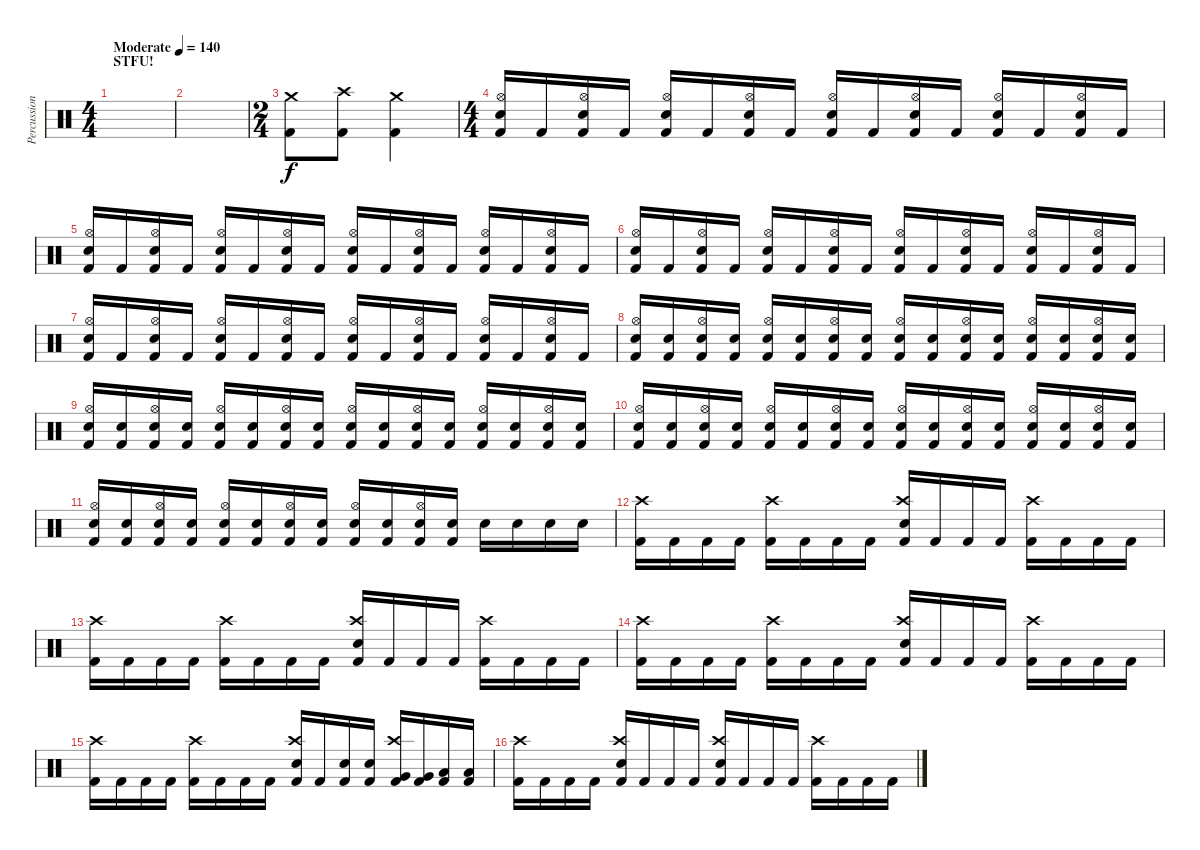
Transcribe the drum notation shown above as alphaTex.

\track ("Percussion" "Percussion") {instrument percussion}
\staff {score}
\articulation defaults
\ts (4 4)
\section ("" "STFU!")
\tempo (140 "Moderate")
\clef neutral
\ks c
|
|
\ts (2 4)
("Crash medium (hit)" "Kick (hit) 2").8 ("Crash high (hit)" "Kick (hit) 2").8 ("Crash medium (hit)" "Kick (hit) 2").4 |
\ts (4 4)
("Hi-Hat (open)" "Electric Snare (hit)" "Kick (hit) 2").16 "Kick (hit) 2".16 ("Hi-Hat (open)" "Electric Snare (hit)" "Kick (hit) 2").16 "Kick (hit) 2".16 ("Hi-Hat (open)" "Electric Snare (hit)" "Kick (hit) 2").16 "Kick (hit) 2".16 ("Hi-Hat (open)" "Electric Snare (hit)" "Kick (hit) 2").16 "Kick (hit) 2".16 ("Hi-Hat (open)" "Electric Snare (hit)" "Kick (hit) 2").16 "Kick (hit) 2".16 ("Hi-Hat (open)" "Electric Snare (hit)" "Kick (hit) 2").16 "Kick (hit) 2".16 ("Hi-Hat (open)" "Electric Snare (hit)" "Kick (hit) 2").16 "Kick (hit) 2".16 ("Hi-Hat (open)" "Electric Snare (hit)" "Kick (hit) 2").16 "Kick (hit) 2".16 |
("Hi-Hat (open)" "Electric Snare (hit)" "Kick (hit) 2").16 "Kick (hit) 2".16 ("Hi-Hat (open)" "Electric Snare (hit)" "Kick (hit) 2").16 "Kick (hit) 2".16 ("Hi-Hat (open)" "Electric Snare (hit)" "Kick (hit) 2").16 "Kick (hit) 2".16 ("Hi-Hat (open)" "Electric Snare (hit)" "Kick (hit) 2").16 "Kick (hit) 2".16 ("Hi-Hat (open)" "Electric Snare (hit)" "Kick (hit) 2").16 "Kick (hit) 2".16 ("Hi-Hat (open)" "Electric Snare (hit)" "Kick (hit) 2").16 "Kick (hit) 2".16 ("Hi-Hat (open)" "Electric Snare (hit)" "Kick (hit) 2").16 "Kick (hit) 2".16 ("Hi-Hat (open)" "Electric Snare (hit)" "Kick (hit) 2").16 "Kick (hit) 2".16 |
("Hi-Hat (open)" "Electric Snare (hit)" "Kick (hit) 2").16 "Kick (hit) 2".16 ("Hi-Hat (open)" "Electric Snare (hit)" "Kick (hit) 2").16 "Kick (hit) 2".16 ("Hi-Hat (open)" "Electric Snare (hit)" "Kick (hit) 2").16 "Kick (hit) 2".16 ("Hi-Hat (open)" "Electric Snare (hit)" "Kick (hit) 2").16 "Kick (hit) 2".16 ("Hi-Hat (open)" "Electric Snare (hit)" "Kick (hit) 2").16 "Kick (hit) 2".16 ("Hi-Hat (open)" "Electric Snare (hit)" "Kick (hit) 2").16 "Kick (hit) 2".16 ("Hi-Hat (open)" "Electric Snare (hit)" "Kick (hit) 2").16 "Kick (hit) 2".16 ("Hi-Hat (open)" "Electric Snare (hit)" "Kick (hit) 2").16 "Kick (hit) 2".16 |
("Hi-Hat (open)" "Electric Snare (hit)" "Kick (hit) 2").16 "Kick (hit) 2".16 ("Hi-Hat (open)" "Electric Snare (hit)" "Kick (hit) 2").16 "Kick (hit) 2".16 ("Hi-Hat (open)" "Electric Snare (hit)" "Kick (hit) 2").16 "Kick (hit) 2".16 ("Hi-Hat (open)" "Electric Snare (hit)" "Kick (hit) 2").16 "Kick (hit) 2".16 ("Hi-Hat (open)" "Electric Snare (hit)" "Kick (hit) 2").16 "Kick (hit) 2".16 ("Hi-Hat (open)" "Electric Snare (hit)" "Kick (hit) 2").16 "Kick (hit) 2".16 ("Hi-Hat (open)" "Electric Snare (hit)" "Kick (hit) 2").16 "Kick (hit) 2".16 ("Hi-Hat (open)" "Electric Snare (hit)" "Kick (hit) 2").16 "Kick (hit) 2".16 |
("Hi-Hat (open)" "Electric Snare (hit)" "Kick (hit) 2").16 ("Electric Snare (hit)" "Kick (hit) 2").16 ("Hi-Hat (open)" "Electric Snare (hit)" "Kick (hit) 2").16 ("Electric Snare (hit)" "Kick (hit) 2").16 ("Hi-Hat (open)" "Electric Snare (hit)" "Kick (hit) 2").16 ("Electric Snare (hit)" "Kick (hit) 2").16 ("Hi-Hat (open)" "Electric Snare (hit)" "Kick (hit) 2").16 ("Electric Snare (hit)" "Kick (hit) 2").16 ("Hi-Hat (open)" "Electric Snare (hit)" "Kick (hit) 2").16 ("Electric Snare (hit)" "Kick (hit) 2").16 ("Hi-Hat (open)" "Electric Snare (hit)" "Kick (hit) 2").16 ("Electric Snare (hit)" "Kick (hit) 2").16 ("Hi-Hat (open)" "Electric Snare (hit)" "Kick (hit) 2").16 ("Electric Snare (hit)" "Kick (hit) 2").16 ("Hi-Hat (open)" "Electric Snare (hit)" "Kick (hit) 2").16 ("Electric Snare (hit)" "Kick (hit) 2").16 |
("Hi-Hat (open)" "Electric Snare (hit)" "Kick (hit) 2").16 ("Electric Snare (hit)" "Kick (hit) 2").16 ("Hi-Hat (open)" "Electric Snare (hit)" "Kick (hit) 2").16 ("Electric Snare (hit)" "Kick (hit) 2").16 ("Hi-Hat (open)" "Electric Snare (hit)" "Kick (hit) 2").16 ("Electric Snare (hit)" "Kick (hit) 2").16 ("Hi-Hat (open)" "Electric Snare (hit)" "Kick (hit) 2").16 ("Electric Snare (hit)" "Kick (hit) 2").16 ("Hi-Hat (open)" "Electric Snare (hit)" "Kick (hit) 2").16 ("Electric Snare (hit)" "Kick (hit) 2").16 ("Hi-Hat (open)" "Electric Snare (hit)" "Kick (hit) 2").16 ("Electric Snare (hit)" "Kick (hit) 2").16 ("Hi-Hat (open)" "Electric Snare (hit)" "Kick (hit) 2").16 ("Electric Snare (hit)" "Kick (hit) 2").16 ("Hi-Hat (open)" "Electric Snare (hit)" "Kick (hit) 2").16 ("Electric Snare (hit)" "Kick (hit) 2").16 |
("Hi-Hat (open)" "Electric Snare (hit)" "Kick (hit) 2").16 ("Electric Snare (hit)" "Kick (hit) 2").16 ("Hi-Hat (open)" "Electric Snare (hit)" "Kick (hit) 2").16 ("Electric Snare (hit)" "Kick (hit) 2").16 ("Hi-Hat (open)" "Electric Snare (hit)" "Kick (hit) 2").16 ("Electric Snare (hit)" "Kick (hit) 2").16 ("Hi-Hat (open)" "Electric Snare (hit)" "Kick (hit) 2").16 ("Electric Snare (hit)" "Kick (hit) 2").16 ("Hi-Hat (open)" "Electric Snare (hit)" "Kick (hit) 2").16 ("Electric Snare (hit)" "Kick (hit) 2").16 ("Hi-Hat (open)" "Electric Snare (hit)" "Kick (hit) 2").16 ("Electric Snare (hit)" "Kick (hit) 2").16 ("Hi-Hat (open)" "Electric Snare (hit)" "Kick (hit) 2").16 ("Electric Snare (hit)" "Kick (hit) 2").16 ("Hi-Hat (open)" "Electric Snare (hit)" "Kick (hit) 2").16 ("Electric Snare (hit)" "Kick (hit) 2").16 |
("Hi-Hat (open)" "Electric Snare (hit)" "Kick (hit) 2").16 ("Electric Snare (hit)" "Kick (hit) 2").16 ("Hi-Hat (open)" "Electric Snare (hit)" "Kick (hit) 2").16 ("Electric Snare (hit)" "Kick (hit) 2").16 ("Hi-Hat (open)" "Electric Snare (hit)" "Kick (hit) 2").16 ("Electric Snare (hit)" "Kick (hit) 2").16 ("Hi-Hat (open)" "Electric Snare (hit)" "Kick (hit) 2").16 ("Electric Snare (hit)" "Kick (hit) 2").16 ("Hi-Hat (open)" "Electric Snare (hit)" "Kick (hit) 2").16 ("Electric Snare (hit)" "Kick (hit) 2").16 ("Hi-Hat (open)" "Electric Snare (hit)" "Kick (hit) 2").16 ("Electric Snare (hit)" "Kick (hit) 2").16 "Electric Snare (hit)".16 "Electric Snare (hit)".16 "Electric Snare (hit)".16 "Electric Snare (hit)".16 |
("Crash high (hit)" "Kick (hit) 2").16 "Kick (hit) 2".16 "Kick (hit) 2".16 "Kick (hit) 2".16 ("Crash high (hit)" "Kick (hit) 2").16 "Kick (hit) 2".16 "Kick (hit) 2".16 "Kick (hit) 2".16 ("Crash high (hit)" "Electric Snare (hit)" "Kick (hit) 2").16 "Kick (hit) 2".16 "Kick (hit) 2".16 "Kick (hit) 2".16 ("Crash high (hit)" "Kick (hit) 2").16 "Kick (hit) 2".16 "Kick (hit) 2".16 "Kick (hit) 2".16 |
("Crash high (hit)" "Kick (hit) 2").16 "Kick (hit) 2".16 "Kick (hit) 2".16 "Kick (hit) 2".16 ("Crash high (hit)" "Kick (hit) 2").16 "Kick (hit) 2".16 "Kick (hit) 2".16 "Kick (hit) 2".16 ("Crash high (hit)" "Electric Snare (hit)" "Kick (hit) 2").16 "Kick (hit) 2".16 "Kick (hit) 2".16 "Kick (hit) 2".16 ("Crash high (hit)" "Kick (hit) 2").16 "Kick (hit) 2".16 "Kick (hit) 2".16 "Kick (hit) 2".16 |
("Crash high (hit)" "Kick (hit) 2").16 "Kick (hit) 2".16 "Kick (hit) 2".16 "Kick (hit) 2".16 ("Crash high (hit)" "Kick (hit) 2").16 "Kick (hit) 2".16 "Kick (hit) 2".16 "Kick (hit) 2".16 ("Crash high (hit)" "Electric Snare (hit)" "Kick (hit) 2").16 "Kick (hit) 2".16 "Kick (hit) 2".16 "Kick (hit) 2".16 ("Crash high (hit)" "Kick (hit) 2").16 "Kick (hit) 2".16 "Kick (hit) 2".16 "Kick (hit) 2".16 |
("Crash high (hit)" "Kick (hit) 2").16 "Kick (hit) 2".16 "Kick (hit) 2".16 "Kick (hit) 2".16 ("Crash high (hit)" "Kick (hit) 2").16 "Kick (hit) 2".16 "Kick (hit) 2".16 "Kick (hit) 2".16 ("Crash high (hit)" "Electric Snare (hit)" "Kick (hit) 2").16 "Kick (hit) 2".16 ("Electric Snare (hit)" "Kick (hit) 2").16 ("Electric Snare (hit)" "Kick (hit) 2").16 ("Crash high (hit)" "Very Low Tom (hit)" "Kick (hit) 2").16 ("Very Low Tom (hit)" "Kick (hit) 2").16 ("Low Floor Tom (hit)" "Kick (hit) 2").16 ("Low Floor Tom (hit)" "Kick (hit) 2").16 |
("Crash high (hit)" "Kick (hit) 2").16 "Kick (hit) 2".16 "Kick (hit) 2".16 "Kick (hit) 2".16 ("Crash high (hit)" "Electric Snare (hit)" "Kick (hit) 2").16 "Kick (hit) 2".16 "Kick (hit) 2".16 "Kick (hit) 2".16 ("Crash high (hit)" "Electric Snare (hit)" "Kick (hit) 2").16 "Kick (hit) 2".16 "Kick (hit) 2".16 "Kick (hit) 2".16 ("Crash high (hit)" "Kick (hit) 2").16 "Kick (hit) 2".16 "Kick (hit) 2".16 "Kick (hit) 2".16
